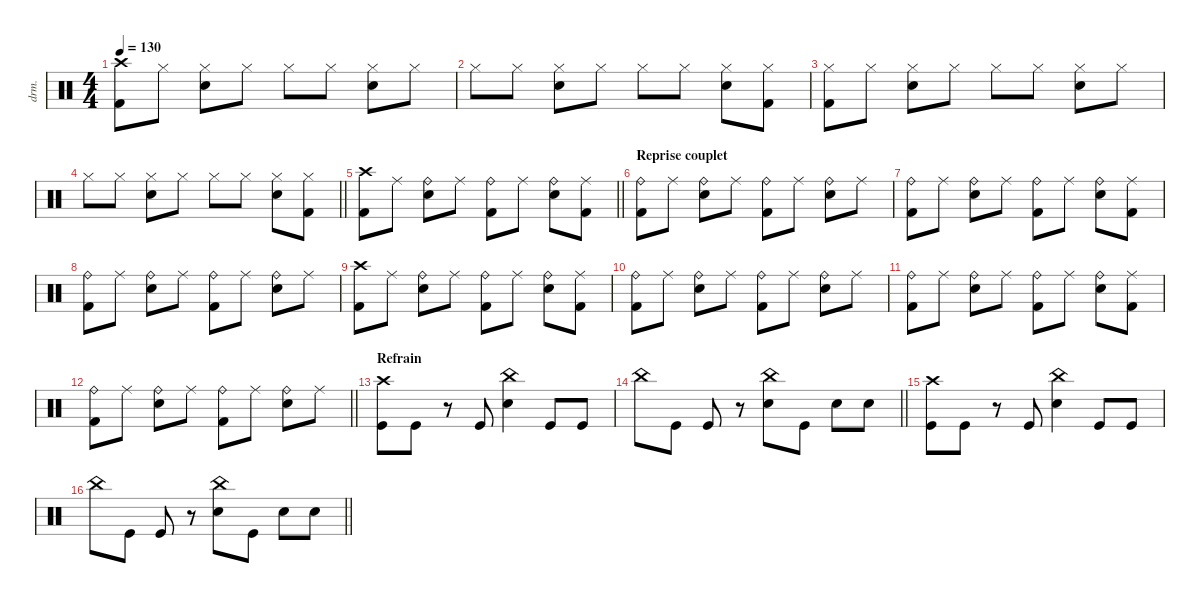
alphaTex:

\defaultSystemsLayout 4
\hideDynamics
\bracketExtendMode nobrackets
\otherSystemsTrackNameOrientation horizontal
\track ("Manouche" "drm.") {instrument percussion}
\staff {score}
\articulation defaults
\ts (4 4)
\tempo 130
\clef neutral
\ks c
("Crash high (hit)" "Kick (hit) 2").8{dy f} "Hi-Hat (closed)".8{dy mp} ("Hi-Hat (closed)" "Snare (hit) 2").8{dy f} "Hi-Hat (closed)".8{dy mp} "Hi-Hat (closed)".8{dy f} "Hi-Hat (closed)".8{dy mp} ("Hi-Hat (closed)" "Snare (hit) 2").8{dy f} "Hi-Hat (closed)".8{dy mp} |
"Hi-Hat (closed)".8{dy f} "Hi-Hat (closed)".8{dy mp} ("Hi-Hat (closed)" "Snare (hit) 2").8{dy f} "Hi-Hat (closed)".8{dy mp} "Hi-Hat (closed)".8{dy f} "Hi-Hat (closed)".8{dy mp} ("Hi-Hat (closed)" "Snare (hit) 2").8{dy f} ("Hi-Hat (closed)" "Kick (hit) 2").8{dy mp} |
("Hi-Hat (closed)" "Kick (hit) 2").8 "Hi-Hat (closed)".8 ("Hi-Hat (closed)" "Snare (hit) 2").8{dy f} "Hi-Hat (closed)".8{dy mp} "Hi-Hat (closed)".8{dy f} "Hi-Hat (closed)".8{dy mp} ("Hi-Hat (closed)" "Snare (hit) 2").8{dy f} "Hi-Hat (closed)".8{dy mp} |
\barLineRight lightlight "Hi-Hat (closed)".8{dy f} "Hi-Hat (closed)".8{dy mp}
("Hi-Hat (closed)" "Snare (hit) 2").8{dy f} "Hi-Hat (closed)".8{dy mp} "Hi-Hat (closed)".8{dy f} "Hi-Hat (closed)".8{dy mp} ("Hi-Hat (closed)" "Snare (hit) 2").8{dy f} ("Hi-Hat (closed)" "Kick (hit) 2").8{dy mp} |
\barLineRight lightlight
("Crash high (hit)" "Kick (hit) 2").8{dy f} "Ride (middle)".8{dy mf} ("Ride (bell)" "Snare (hit) 2").8{dy f} "Ride (middle)".8{dy mf} ("Ride (bell)" "Kick (hit) 2").8{dy f} "Ride (middle)".8{dy mf} ("Ride (bell)" "Snare (hit) 2").8{dy f} ("Ride (middle)" "Kick (hit) 2").8{dy mf} |
\section ("" "Reprise couplet")
("Ride (bell)" "Kick (hit) 2").8{dy f} "Ride (middle)".8{dy mf} ("Ride (bell)" "Snare (hit) 2").8{dy f} "Ride (middle)".8{dy mf} ("Ride (bell)" "Kick (hit) 2").8{dy f} "Ride (middle)".8{dy mf} ("Ride (bell)" "Snare (hit) 2").8{dy f} "Ride (middle)".8{dy mf} |
("Ride (bell)" "Kick (hit) 2").8{dy f} "Ride (middle)".8{dy mf} ("Ride (bell)" "Snare (hit) 2").8{dy f} "Ride (middle)".8{dy mf} ("Ride (bell)" "Kick (hit) 2").8{dy f} "Ride (middle)".8{dy mf} ("Ride (bell)" "Snare (hit) 2").8{dy f} ("Ride (middle)" "Kick (hit) 2").8{dy mf} |
("Ride (bell)" "Kick (hit) 2").8{dy f} "Ride (middle)".8{dy mf} ("Ride (bell)" "Snare (hit) 2").8{dy f} "Ride (middle)".8{dy mf} ("Ride (bell)" "Kick (hit) 2").8{dy f} "Ride (middle)".8{dy mf} ("Ride (bell)" "Snare (hit) 2").8{dy f} "Ride (middle)".8{dy mf} |
("Crash high (hit)" "Kick (hit) 2").8{dy f} "Ride (middle)".8{dy mf} ("Ride (bell)" "Snare (hit) 2").8{dy f} "Ride (middle)".8{dy mf} ("Ride (bell)" "Kick (hit) 2").8{dy f} "Ride (middle)".8{dy mf} ("Ride (bell)" "Snare (hit) 2").8{dy f} ("Ride (middle)" "Kick (hit) 2").8{dy mf} |
("Ride (bell)" "Kick (hit) 2").8{dy f} "Ride (middle)".8{dy mf} ("Ride (bell)" "Snare (hit) 2").8{dy f} "Ride (middle)".8{dy mf} ("Ride (bell)" "Kick (hit) 2").8{dy f} "Ride (middle)".8{dy mf} ("Ride (bell)" "Snare (hit) 2").8{dy f} "Ride (middle)".8{dy mf} |
("Ride (bell)" "Kick (hit) 2").8{dy f} "Ride (middle)".8{dy mf} ("Ride (bell)" "Snare (hit) 2").8{dy f} "Ride (middle)".8{dy mf} ("Ride (bell)" "Kick (hit) 2").8{dy f} "Ride (middle)".8{dy mf} ("Ride (bell)" "Snare (hit) 2").8{dy f} ("Ride (middle)" "Kick (hit) 2").8{dy mf} |
\barLineRight lightlight
("Ride (bell)" "Kick (hit) 2").8{dy f} "Ride (middle)".8{dy mf} ("Ride (bell)" "Snare (hit) 2").8{dy f} "Ride (middle)".8{dy mf} ("Ride (bell)" "Kick (hit) 2").8{dy f} "Ride (middle)".8{dy mf} ("Ride (bell)" "Snare (hit) 2").8{dy f} "Ride (middle)".8{dy mf} |
\section ("" "Refrain")
("Crash high (hit)" "Kick (hit)").8{dy f} "Kick (hit)".8 r.8 "Kick (hit)".8 ("China (hit)" "Snare (hit) 2").4 "Kick (hit)".8 "Kick (hit)".8 |
\barLineRight lightlight "China (hit)".8 "Kick (hit)".8 "Kick (hit)".8
r.8 ("China (hit)" "Snare (hit) 2").8 "Kick (hit)".8 "Snare (hit) 2".8 "Snare (hit) 2".8 |
("Crash high (hit)" "Kick (hit)").8 "Kick (hit)".8 r.8 "Kick (hit)".8 ("China (hit)" "Snare (hit) 2").4 "Kick (hit)".8 "Kick (hit)".8 |
\barLineRight lightlight "China (hit)".8 "Kick (hit)".8 "Kick (hit)".8
r.8 ("China (hit)" "Snare (hit) 2").8 "Kick (hit)".8 "Snare (hit) 2".8 "Snare (hit) 2".8
